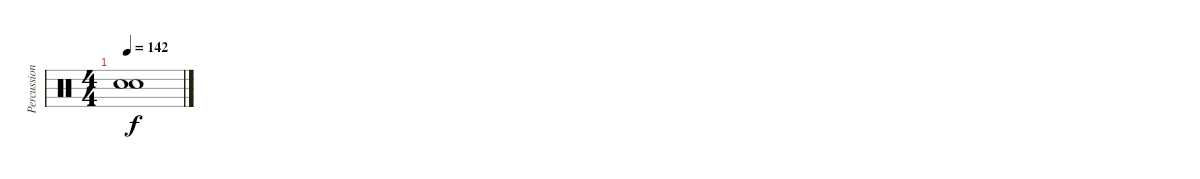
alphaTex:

\track ("Percussions" "Percussion") {instrument percussion}
\staff {score}
\articulation defaults
\ts (4 4)
\tempo 142
\clef neutral
\ks c
("Electric Snare (hit)" "Electric Snare (hit)").1{dy f}
